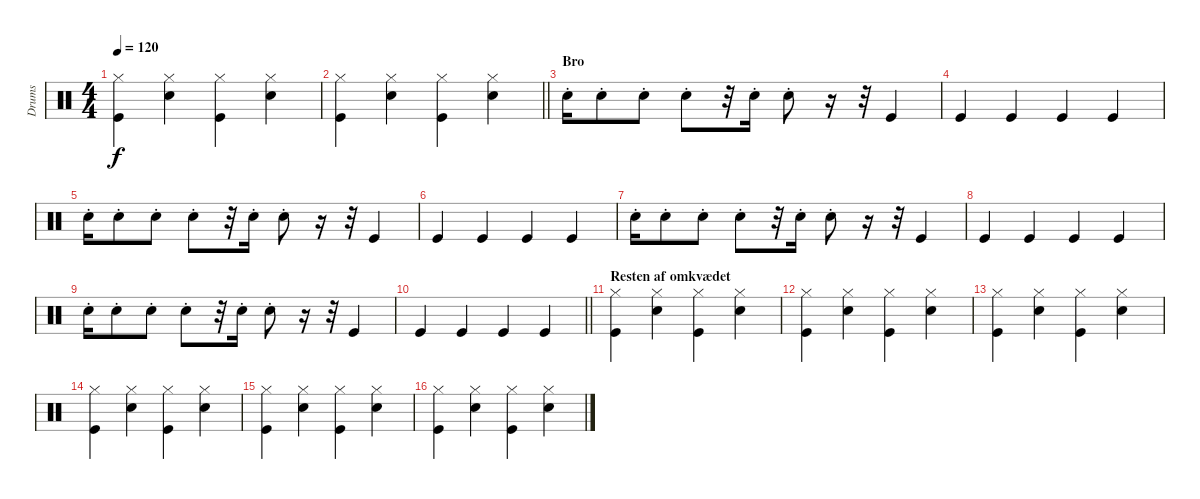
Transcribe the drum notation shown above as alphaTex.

\track ("Drums" "Drums") {instrument percussion}
\staff {score}
\articulation defaults
\ts (4 4)
\tempo 120
\clef neutral
\ks c
("Hi-Hat (closed)" "Kick (hit)").4{dy f} ("Hi-Hat (closed)" "Snare (hit) 2").4 ("Hi-Hat (closed)" "Kick (hit)").4 ("Hi-Hat (closed)" "Snare (hit) 2").4 |
\barLineRight lightlight
("Hi-Hat (closed)" "Kick (hit)").4 ("Hi-Hat (closed)" "Snare (hit) 2").4 ("Hi-Hat (closed)" "Kick (hit)").4 ("Hi-Hat (closed)" "Snare (hit) 2").4 |
\section ("" "Bro")
"Snare (hit) 2"{st}.16 "Snare (hit) 2"{st}.8 "Snare (hit) 2"{st}.8 "Snare (hit) 2"{st}.8 r.32 "Snare (hit) 2"{st}.16 "Snare (hit) 2"{st}.8 r.16 r.32 "Kick (hit)".4 |
"Kick (hit)".4 "Kick (hit)".4 "Kick (hit)".4 "Kick (hit)".4 |
"Snare (hit) 2"{st}.16 "Snare (hit) 2"{st}.8 "Snare (hit) 2"{st}.8 "Snare (hit) 2"{st}.8 r.32 "Snare (hit) 2"{st}.16 "Snare (hit) 2"{st}.8 r.16 r.32 "Kick (hit)".4 |
"Kick (hit)".4 "Kick (hit)".4 "Kick (hit)".4 "Kick (hit)".4 |
"Snare (hit) 2"{st}.16 "Snare (hit) 2"{st}.8 "Snare (hit) 2"{st}.8 "Snare (hit) 2"{st}.8 r.32 "Snare (hit) 2"{st}.16 "Snare (hit) 2"{st}.8 r.16 r.32 "Kick (hit)".4 |
"Kick (hit)".4 "Kick (hit)".4 "Kick (hit)".4 "Kick (hit)".4 |
"Snare (hit) 2"{st}.16 "Snare (hit) 2"{st}.8 "Snare (hit) 2"{st}.8 "Snare (hit) 2"{st}.8 r.32 "Snare (hit) 2"{st}.16 "Snare (hit) 2"{st}.8 r.16 r.32 "Kick (hit)".4 |
\barLineRight lightlight "Kick (hit)".4 "Kick (hit)".4 "Kick (hit)".4 "Kick (hit)".4
|
\section ("" "Resten af omkvædet")
("Hi-Hat (closed)" "Kick (hit)").4 ("Hi-Hat (closed)" "Snare (hit) 2").4 ("Hi-Hat (closed)" "Kick (hit)").4 ("Hi-Hat (closed)" "Snare (hit) 2").4 |
("Hi-Hat (closed)" "Kick (hit)").4 ("Hi-Hat (closed)" "Snare (hit) 2").4 ("Hi-Hat (closed)" "Kick (hit)").4 ("Hi-Hat (closed)" "Snare (hit) 2").4 |
("Hi-Hat (closed)" "Kick (hit)").4 ("Hi-Hat (closed)" "Snare (hit) 2").4 ("Hi-Hat (closed)" "Kick (hit)").4 ("Hi-Hat (closed)" "Snare (hit) 2").4 |
("Hi-Hat (closed)" "Kick (hit)").4 ("Hi-Hat (closed)" "Snare (hit) 2").4 ("Hi-Hat (closed)" "Kick (hit)").4 ("Hi-Hat (closed)" "Snare (hit) 2").4 |
("Hi-Hat (closed)" "Kick (hit)").4 ("Hi-Hat (closed)" "Snare (hit) 2").4 ("Hi-Hat (closed)" "Kick (hit)").4 ("Hi-Hat (closed)" "Snare (hit) 2").4 |
("Hi-Hat (closed)" "Kick (hit)").4 ("Hi-Hat (closed)" "Snare (hit) 2").4 ("Hi-Hat (closed)" "Kick (hit)").4 ("Hi-Hat (closed)" "Snare (hit) 2").4
